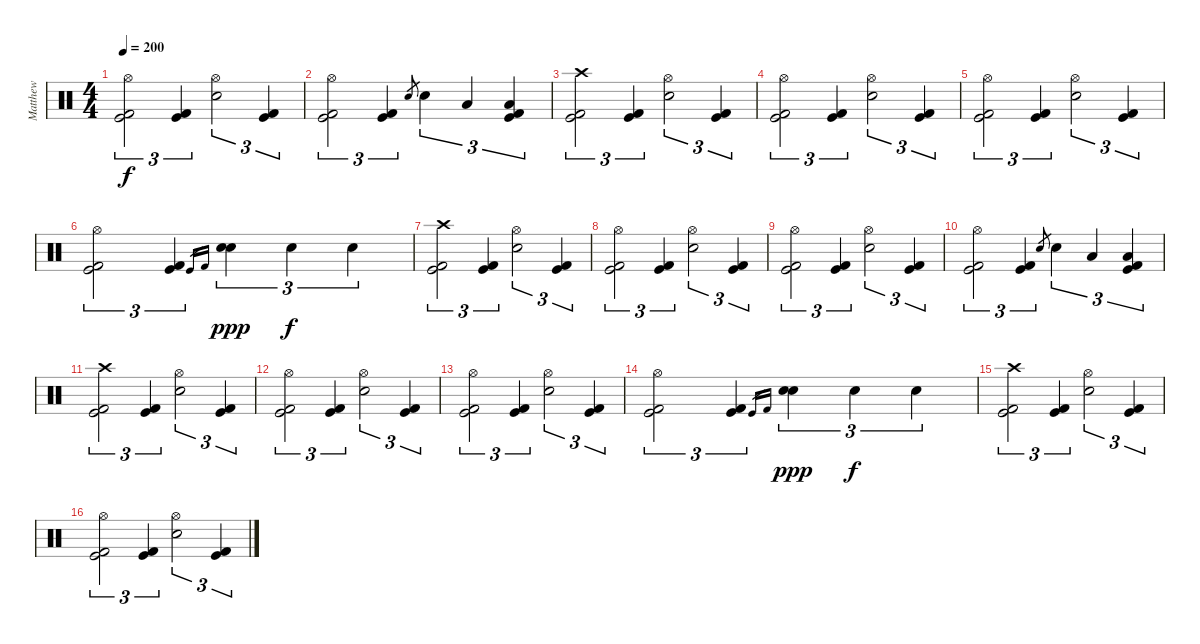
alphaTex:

\track ("Matthew" "Matthew") {instrument percussion}
\staff {score}
\articulation defaults
\ts (4 4)
\tempo 200
\clef neutral
\ks c
("Kick (hit) 2" "Kick (hit)" "Hi-Hat (open)").2{tu (3 2) dy f} ("Kick (hit) 2" "Kick (hit)").4{tu (3 2)} ("Snare (hit) 2" "Hi-Hat (open)").2{tu (3 2)} ("Kick (hit)" "Kick (hit) 2").4{tu (3 2)} |
("Kick (hit) 2" "Kick (hit)" "Hi-Hat (open)").2{tu (3 2)} ("Kick (hit) 2" "Kick (hit)").4{tu (3 2)} "Snare (hit) 2".8{gr} "Snare (hit) 2".4{tu (3 2)} "Low Tom (hit)".4{tu (3 2)} ("Low Floor Tom (hit)" "Kick (hit) 2" "Kick (hit)").4{tu (3 2)} |
("Kick (hit) 2" "Kick (hit)" "Crash high (hit)").2{tu (3 2)} ("Kick (hit) 2" "Kick (hit)").4{tu (3 2)} ("Snare (hit) 2" "Hi-Hat (open)").2{tu (3 2)} ("Kick (hit)" "Kick (hit) 2").4{tu (3 2)} |
("Kick (hit) 2" "Kick (hit)" "Hi-Hat (open)").2{tu (3 2)} ("Kick (hit) 2" "Kick (hit)").4{tu (3 2)} ("Snare (hit) 2" "Hi-Hat (open)").2{tu (3 2)} ("Kick (hit)" "Kick (hit) 2").4{tu (3 2)} |
("Kick (hit) 2" "Kick (hit)" "Hi-Hat (open)").2{tu (3 2)} ("Kick (hit) 2" "Kick (hit)").4{tu (3 2)} ("Snare (hit) 2" "Hi-Hat (open)").2{tu (3 2)} ("Kick (hit)" "Kick (hit) 2").4{tu (3 2)} |
("Kick (hit) 2" "Kick (hit)" "Hi-Hat (open)").2{tu (3 2)} ("Kick (hit) 2" "Kick (hit)").4{tu (3 2)} "Kick (hit)".16{gr} "Kick (hit) 2".16{gr} ("Snare (hit) 2" "Snare (hit) 2").4{tu (3 2) dy ppp} "Snare (hit) 2".4{tu (3 2) dy f} "Snare (hit) 2".4{tu (3 2)} |
("Kick (hit) 2" "Kick (hit)" "Crash high (hit)").2{tu (3 2)} ("Kick (hit) 2" "Kick (hit)").4{tu (3 2)} ("Snare (hit) 2" "Hi-Hat (open)").2{tu (3 2)} ("Kick (hit)" "Kick (hit) 2").4{tu (3 2)} |
("Kick (hit) 2" "Kick (hit)" "Hi-Hat (open)").2{tu (3 2)} ("Kick (hit) 2" "Kick (hit)").4{tu (3 2)} ("Snare (hit) 2" "Hi-Hat (open)").2{tu (3 2)} ("Kick (hit)" "Kick (hit) 2").4{tu (3 2)} |
("Kick (hit) 2" "Kick (hit)" "Hi-Hat (open)").2{tu (3 2)} ("Kick (hit) 2" "Kick (hit)").4{tu (3 2)} ("Snare (hit) 2" "Hi-Hat (open)").2{tu (3 2)} ("Kick (hit)" "Kick (hit) 2").4{tu (3 2)} |
("Kick (hit) 2" "Kick (hit)" "Hi-Hat (open)").2{tu (3 2)} ("Kick (hit) 2" "Kick (hit)").4{tu (3 2)} "Snare (hit) 2".8{gr} "Snare (hit) 2".4{tu (3 2)} "Low Tom (hit)".4{tu (3 2)} ("Low Floor Tom (hit)" "Kick (hit) 2" "Kick (hit)").4{tu (3 2)} |
("Kick (hit) 2" "Kick (hit)" "Crash high (hit)").2{tu (3 2)} ("Kick (hit) 2" "Kick (hit)").4{tu (3 2)} ("Snare (hit) 2" "Hi-Hat (open)").2{tu (3 2)} ("Kick (hit)" "Kick (hit) 2").4{tu (3 2)} |
("Kick (hit) 2" "Kick (hit)" "Hi-Hat (open)").2{tu (3 2)} ("Kick (hit) 2" "Kick (hit)").4{tu (3 2)} ("Snare (hit) 2" "Hi-Hat (open)").2{tu (3 2)} ("Kick (hit)" "Kick (hit) 2").4{tu (3 2)} |
("Kick (hit) 2" "Kick (hit)" "Hi-Hat (open)").2{tu (3 2)} ("Kick (hit) 2" "Kick (hit)").4{tu (3 2)} ("Snare (hit) 2" "Hi-Hat (open)").2{tu (3 2)} ("Kick (hit)" "Kick (hit) 2").4{tu (3 2)} |
("Kick (hit) 2" "Kick (hit)" "Hi-Hat (open)").2{tu (3 2)} ("Kick (hit) 2" "Kick (hit)").4{tu (3 2)} "Kick (hit)".16{gr} "Kick (hit) 2".16{gr} ("Snare (hit) 2" "Snare (hit) 2").4{tu (3 2) dy ppp} "Snare (hit) 2".4{tu (3 2) dy f} "Snare (hit) 2".4{tu (3 2)} |
("Kick (hit) 2" "Kick (hit)" "Crash high (hit)").2{tu (3 2)} ("Kick (hit) 2" "Kick (hit)").4{tu (3 2)} ("Snare (hit) 2" "Hi-Hat (open)").2{tu (3 2)} ("Kick (hit)" "Kick (hit) 2").4{tu (3 2)} |
("Kick (hit) 2" "Kick (hit)" "Hi-Hat (open)").2{tu (3 2)} ("Kick (hit) 2" "Kick (hit)").4{tu (3 2)} ("Snare (hit) 2" "Hi-Hat (open)").2{tu (3 2)} ("Kick (hit)" "Kick (hit) 2").4{tu (3 2)}
